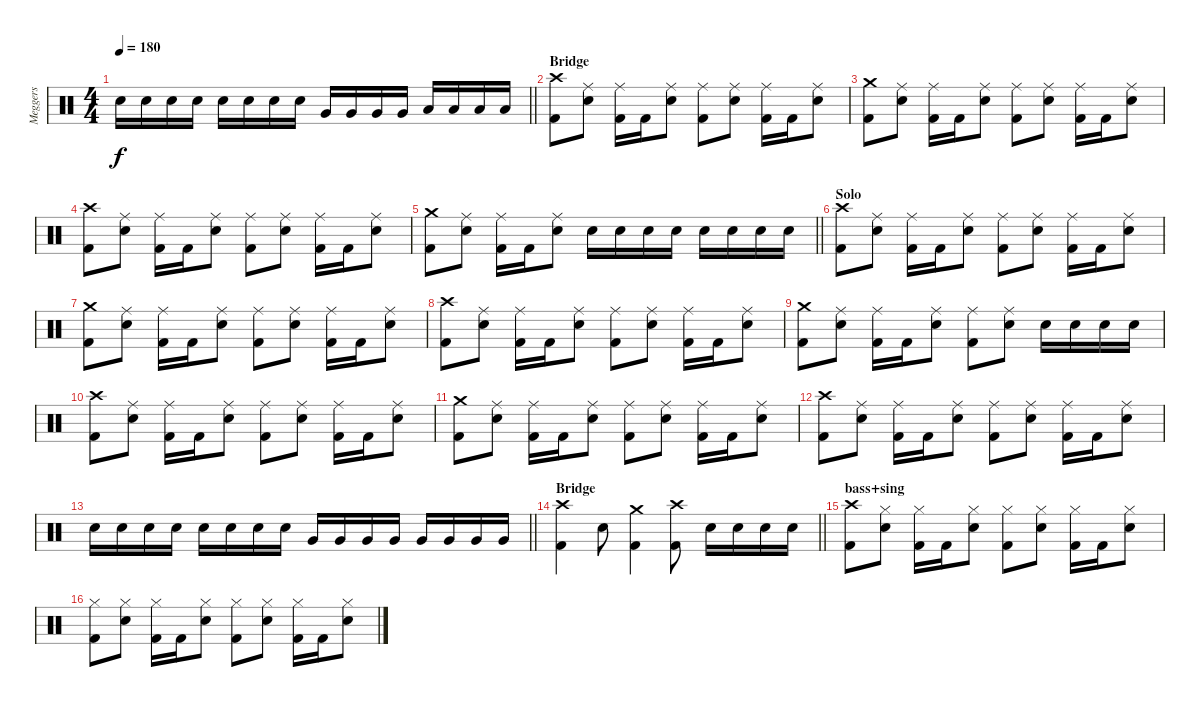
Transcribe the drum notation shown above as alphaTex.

\track ("Meggers" "Meggers") {instrument percussion}
\staff {score}
\articulation defaults
\ts (4 4)
\tempo 180
\clef neutral
\barLineRight lightlight
\ks c "Snare (hit) 2".16{dy f} "Snare (hit) 2".16 "Snare (hit) 2".16 "Snare (hit) 2".16 "Snare (hit) 2".16 "Snare (hit) 2".16 "Snare (hit) 2".16 "Snare (hit) 2".16 "Very Low Tom (hit)".16 "Very Low Tom (hit)".16 "Very Low Tom (hit)".16 "Very Low Tom (hit)".16 "Low Floor Tom (hit)".16 "Low Floor Tom (hit)".16 "Low Floor Tom (hit)".16 "Low Floor Tom (hit)".16
|
\section ("" "Bridge")
("Crash high (hit)" "Kick (hit) 2").8 ("Ride (middle)" "Snare (hit) 2").8 ("Ride (middle)" "Kick (hit) 2").16 "Kick (hit) 2".16 ("Ride (middle)" "Snare (hit) 2").8 ("Ride (middle)" "Kick (hit) 2").8 ("Ride (middle)" "Snare (hit) 2").8 ("Ride (middle)" "Kick (hit) 2").16 "Kick (hit) 2".16 ("Ride (middle)" "Snare (hit) 2").8 |
("Crash medium (hit)" "Kick (hit) 2").8 ("Ride (middle)" "Snare (hit) 2").8 ("Ride (middle)" "Kick (hit) 2").16 "Kick (hit) 2".16 ("Ride (middle)" "Snare (hit) 2").8 ("Ride (middle)" "Kick (hit) 2").8 ("Ride (middle)" "Snare (hit) 2").8 ("Ride (middle)" "Kick (hit) 2").16 "Kick (hit) 2".16 ("Ride (middle)" "Snare (hit) 2").8 |
("Crash high (hit)" "Kick (hit) 2").8 ("Ride (middle)" "Snare (hit) 2").8 ("Ride (middle)" "Kick (hit) 2").16 "Kick (hit) 2".16 ("Ride (middle)" "Snare (hit) 2").8 ("Ride (middle)" "Kick (hit) 2").8 ("Ride (middle)" "Snare (hit) 2").8 ("Ride (middle)" "Kick (hit) 2").16 "Kick (hit) 2".16 ("Ride (middle)" "Snare (hit) 2").8 |
\barLineRight lightlight
("Crash medium (hit)" "Kick (hit) 2").8 ("Ride (middle)" "Snare (hit) 2").8 ("Ride (middle)" "Kick (hit) 2").16 "Kick (hit) 2".16 ("Ride (middle)" "Snare (hit) 2").8 "Snare (hit) 2".16 "Snare (hit) 2".16 "Snare (hit) 2".16 "Snare (hit) 2".16 "Snare (hit) 2".16 "Snare (hit) 2".16 "Snare (hit) 2".16 "Snare (hit) 2".16 |
\section ("" "Solo")
("Crash high (hit)" "Kick (hit) 2").8 ("Ride (middle)" "Snare (hit) 2").8 ("Ride (middle)" "Kick (hit) 2").16 "Kick (hit) 2".16 ("Ride (middle)" "Snare (hit) 2").8 ("Ride (middle)" "Kick (hit) 2").8 ("Ride (middle)" "Snare (hit) 2").8 ("Ride (middle)" "Kick (hit) 2").16 "Kick (hit) 2".16 ("Ride (middle)" "Snare (hit) 2").8 |
("Crash medium (hit)" "Kick (hit) 2").8 ("Ride (middle)" "Snare (hit) 2").8 ("Ride (middle)" "Kick (hit) 2").16 "Kick (hit) 2".16 ("Ride (middle)" "Snare (hit) 2").8 ("Ride (middle)" "Kick (hit) 2").8 ("Ride (middle)" "Snare (hit) 2").8 ("Ride (middle)" "Kick (hit) 2").16 "Kick (hit) 2".16 ("Ride (middle)" "Snare (hit) 2").8 |
("Crash high (hit)" "Kick (hit) 2").8 ("Ride (middle)" "Snare (hit) 2").8 ("Ride (middle)" "Kick (hit) 2").16 "Kick (hit) 2".16 ("Ride (middle)" "Snare (hit) 2").8 ("Ride (middle)" "Kick (hit) 2").8 ("Ride (middle)" "Snare (hit) 2").8 ("Ride (middle)" "Kick (hit) 2").16 "Kick (hit) 2".16 ("Ride (middle)" "Snare (hit) 2").8 |
("Crash medium (hit)" "Kick (hit) 2").8 ("Ride (middle)" "Snare (hit) 2").8 ("Ride (middle)" "Kick (hit) 2").16 "Kick (hit) 2".16 ("Ride (middle)" "Snare (hit) 2").8 ("Ride (middle)" "Kick (hit) 2").8 ("Ride (middle)" "Snare (hit) 2").8 "Snare (hit) 2".16 "Snare (hit) 2".16 "Snare (hit) 2".16 "Snare (hit) 2".16 |
("Crash high (hit)" "Kick (hit) 2").8 ("Ride (middle)" "Snare (hit) 2").8 ("Ride (middle)" "Kick (hit) 2").16 "Kick (hit) 2".16 ("Ride (middle)" "Snare (hit) 2").8 ("Ride (middle)" "Kick (hit) 2").8 ("Ride (middle)" "Snare (hit) 2").8 ("Ride (middle)" "Kick (hit) 2").16 "Kick (hit) 2".16 ("Ride (middle)" "Snare (hit) 2").8 |
("Crash medium (hit)" "Kick (hit) 2").8 ("Ride (middle)" "Snare (hit) 2").8 ("Ride (middle)" "Kick (hit) 2").16 "Kick (hit) 2".16 ("Ride (middle)" "Snare (hit) 2").8 ("Ride (middle)" "Kick (hit) 2").8 ("Ride (middle)" "Snare (hit) 2").8 ("Ride (middle)" "Kick (hit) 2").16 "Kick (hit) 2".16 ("Ride (middle)" "Snare (hit) 2").8 |
("Crash high (hit)" "Kick (hit) 2").8 ("Ride (middle)" "Snare (hit) 2").8 ("Ride (middle)" "Kick (hit) 2").16 "Kick (hit) 2".16 ("Ride (middle)" "Snare (hit) 2").8 ("Ride (middle)" "Kick (hit) 2").8 ("Ride (middle)" "Snare (hit) 2").8 ("Ride (middle)" "Kick (hit) 2").16 "Kick (hit) 2".16 ("Ride (middle)" "Snare (hit) 2").8 |
\barLineRight lightlight "Snare (hit) 2".16 "Snare (hit) 2".16 "Snare (hit) 2".16 "Snare (hit) 2".16 "Snare (hit) 2".16 "Snare (hit) 2".16 "Snare (hit) 2".16 "Snare (hit) 2".16 "Very Low Tom (hit)".16 "Very Low Tom (hit)".16 "Very Low Tom (hit)".16 "Very Low Tom (hit)".16 "Very Low Tom (hit)".16 "Very Low Tom (hit)".16 "Very Low Tom (hit)".16 "Very Low Tom (hit)".16
|
\section ("" "Bridge")
\barLineRight lightlight
("Crash high (hit)" "Kick (hit) 2").4 "Snare (hit) 2".8 ("Crash medium (hit)" "Kick (hit) 2").4 ("Crash high (hit)" "Kick (hit) 2").8 "Snare (hit) 2".16 "Snare (hit) 2".16 "Snare (hit) 2".16 "Snare (hit) 2".16 |
\section ("" "bass+sing")
("Crash high (hit)" "Kick (hit) 2").8 ("Hi-Hat (closed)" "Snare (hit) 2").8 ("Hi-Hat (closed)" "Kick (hit) 2").16 "Kick (hit) 2".16 ("Hi-Hat (closed)" "Snare (hit) 2").8 ("Hi-Hat (closed)" "Kick (hit) 2").8 ("Hi-Hat (closed)" "Snare (hit) 2").8 ("Hi-Hat (closed)" "Kick (hit) 2").16 "Kick (hit) 2".16 ("Hi-Hat (closed)" "Snare (hit) 2").8 |
("Hi-Hat (closed)" "Kick (hit) 2").8 ("Hi-Hat (closed)" "Snare (hit) 2").8 ("Hi-Hat (closed)" "Kick (hit) 2").16 "Kick (hit) 2".16 ("Hi-Hat (closed)" "Snare (hit) 2").8 ("Hi-Hat (closed)" "Kick (hit) 2").8 ("Hi-Hat (closed)" "Snare (hit) 2").8 ("Hi-Hat (closed)" "Kick (hit) 2").16 "Kick (hit) 2".16 ("Hi-Hat (closed)" "Snare (hit) 2").8
